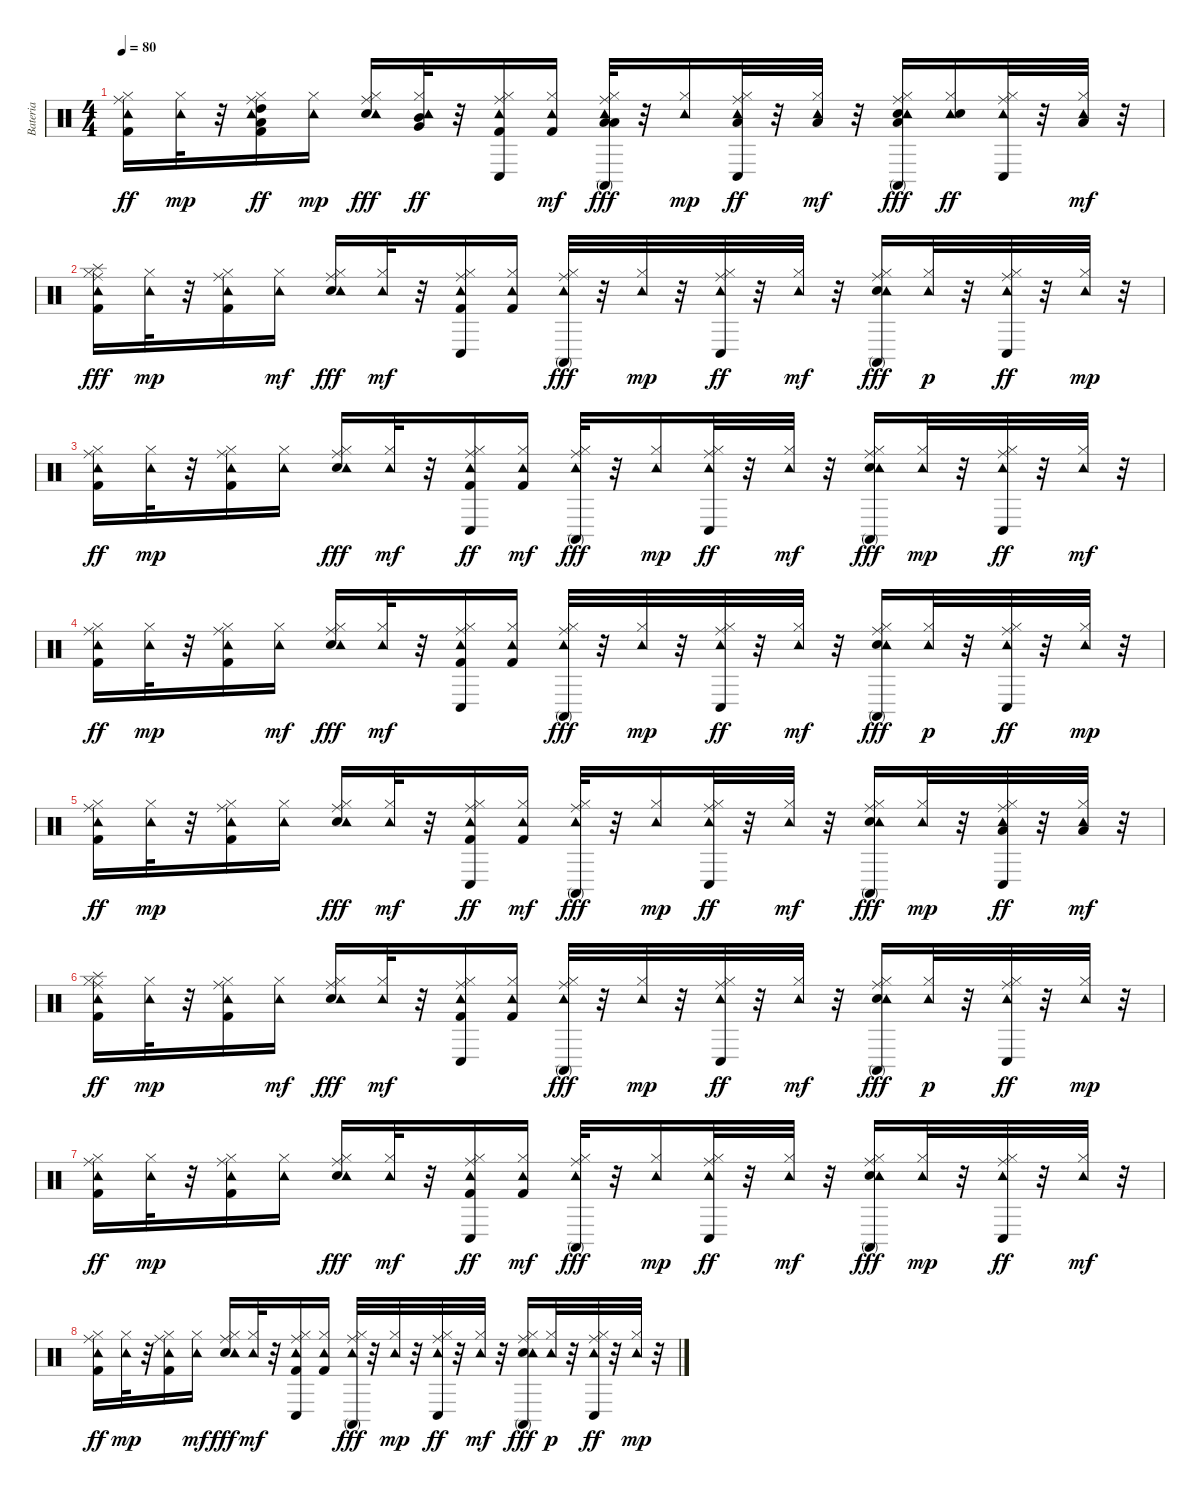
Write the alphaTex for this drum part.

\track ("Bateria" "Bateria") {instrument percussion}
\staff {score}
\articulation defaults
\ts (4 4)
\tempo 80
\clef neutral
\ks c
("Hi-Hat (closed)" "Ride (middle)" "Tambourine (hit)" "Kick (hit) 2").16{dy ff} ("Hi-Hat (closed)" "Tambourine (hit)").32{dy mp} r.32 ("Hi-Hat (closed)" "Ride (middle)" "Low Tom (hit)" "Tambourine (hit)" "Kick (hit) 2" "High Tom (hit)").16{dy ff} ("Hi-Hat (closed)" "Tambourine (hit)").16{dy mp} ("Electric Snare (hit)" "Hi-Hat (closed)" "Ride (middle)" "Tambourine (hit)").16{dy fff} ("Hi-Hat (closed)" "Very Low Tom (hit)" "Tambourine (hit)" "Mid Tom (hit)").32{dy ff} r.32 ("Hi-Hat (closed)" "Conga low (hit)" "Ride (middle)" "Tambourine (hit)" "Kick (hit) 2").16 ("Hi-Hat (closed)" "Tambourine (hit)" "Kick (hit) 2").16{dy mf} ("Low Tom (hit)" "Low Floor Tom (hit)" "Hi-Hat (closed)" "Conga high (mute)" "Ride (middle)" "Tambourine (hit)").32{dy fff} r.32 ("Hi-Hat (closed)" "Tambourine (hit)").16{dy mp} ("Low Floor Tom (hit)" "Hi-Hat (closed)" "Conga low (hit)" "Ride (middle)" "Tambourine (hit)").32{dy ff} r.32 ("Hi-Hat (closed)" "Low Floor Tom (hit)" "Tambourine (hit)").32{dy mf} r.32 ("Low Floor Tom (hit)" "Electric Snare (hit)" "Hi-Hat (closed)" "Conga high (mute)" "Ride (middle)" "Tambourine (hit)").16{dy fff} ("Hi-Hat (closed)" "Tambourine (hit)" "Electric Snare (hit)").16{dy ff} ("Hi-Hat (closed)" "Conga low (hit)" "Ride (middle)" "Tambourine (hit)").32 r.32 ("Hi-Hat (closed)" "Tambourine (hit)" "Low Floor Tom (hit)").32{dy mf} r.32 |
("Hi-Hat (closed)" "Ride (middle)" "Tambourine (hit)" "Kick (hit) 2" "Splash (hit)").16{dy fff} ("Hi-Hat (closed)" "Tambourine (hit)").32{dy mp} r.32 ("Hi-Hat (closed)" "Ride (middle)" "Tambourine (hit)" "Kick (hit) 2").16 ("Hi-Hat (closed)" "Tambourine (hit)").16{dy mf} ("Electric Snare (hit)" "Hi-Hat (closed)" "Ride (middle)" "Tambourine (hit)").16{dy fff} ("Hi-Hat (closed)" "Tambourine (hit)").32{dy mf} r.32 ("Hi-Hat (closed)" "Conga low (hit)" "Ride (middle)" "Tambourine (hit)" "Kick (hit) 2").16 ("Hi-Hat (closed)" "Tambourine (hit)" "Kick (hit) 2").16 ("Hi-Hat (closed)" "Conga high (mute)" "Ride (middle)" "Tambourine (hit)").32{dy fff} r.32 ("Hi-Hat (closed)" "Tambourine (hit)").32{dy mp} r.32 ("Hi-Hat (closed)" "Conga low (hit)" "Ride (middle)" "Tambourine (hit)").32{dy ff} r.32 ("Hi-Hat (closed)" "Tambourine (hit)").32{dy mf} r.32 ("Electric Snare (hit)" "Hi-Hat (closed)" "Conga high (mute)" "Ride (middle)" "Tambourine (hit)").16{dy fff} ("Hi-Hat (closed)" "Tambourine (hit)").32{dy p} r.32 ("Hi-Hat (closed)" "Conga low (hit)" "Ride (middle)" "Tambourine (hit)").32{dy ff} r.32 ("Hi-Hat (closed)" "Tambourine (hit)").32{dy mp} r.32 |
("Hi-Hat (closed)" "Ride (middle)" "Tambourine (hit)" "Kick (hit) 2").16{dy ff} ("Hi-Hat (closed)" "Tambourine (hit)").32{dy mp} r.32 ("Hi-Hat (closed)" "Ride (middle)" "Tambourine (hit)" "Kick (hit) 2").16 ("Hi-Hat (closed)" "Tambourine (hit)").16 ("Electric Snare (hit)" "Hi-Hat (closed)" "Ride (middle)" "Tambourine (hit)").16{dy fff} ("Hi-Hat (closed)" "Tambourine (hit)").32{dy mf} r.32 ("Hi-Hat (closed)" "Conga low (hit)" "Ride (middle)" "Tambourine (hit)" "Kick (hit) 2").16{dy ff} ("Hi-Hat (closed)" "Tambourine (hit)" "Kick (hit) 2").16{dy mf} ("Hi-Hat (closed)" "Conga high (mute)" "Ride (middle)" "Tambourine (hit)").32{dy fff} r.32 ("Hi-Hat (closed)" "Tambourine (hit)").16{dy mp} ("Hi-Hat (closed)" "Conga low (hit)" "Ride (middle)" "Tambourine (hit)").32{dy ff} r.32 ("Hi-Hat (closed)" "Tambourine (hit)").32{dy mf} r.32 ("Electric Snare (hit)" "Hi-Hat (closed)" "Conga high (mute)" "Ride (middle)" "Tambourine (hit)").16{dy fff} ("Hi-Hat (closed)" "Tambourine (hit)").32{dy mp} r.32 ("Hi-Hat (closed)" "Conga low (hit)" "Ride (middle)" "Tambourine (hit)").32{dy ff} r.32 ("Hi-Hat (closed)" "Tambourine (hit)").32{dy mf} r.32 |
("Hi-Hat (closed)" "Ride (middle)" "Tambourine (hit)" "Kick (hit) 2").16{dy ff} ("Hi-Hat (closed)" "Tambourine (hit)").32{dy mp} r.32 ("Hi-Hat (closed)" "Ride (middle)" "Tambourine (hit)" "Kick (hit) 2").16 ("Hi-Hat (closed)" "Tambourine (hit)").16{dy mf} ("Electric Snare (hit)" "Hi-Hat (closed)" "Ride (middle)" "Tambourine (hit)").16{dy fff} ("Hi-Hat (closed)" "Tambourine (hit)").32{dy mf} r.32 ("Hi-Hat (closed)" "Conga low (hit)" "Ride (middle)" "Tambourine (hit)" "Kick (hit) 2").16 ("Hi-Hat (closed)" "Tambourine (hit)" "Kick (hit) 2").16 ("Hi-Hat (closed)" "Conga high (mute)" "Ride (middle)" "Tambourine (hit)").32{dy fff} r.32 ("Hi-Hat (closed)" "Tambourine (hit)").32{dy mp} r.32 ("Hi-Hat (closed)" "Conga low (hit)" "Ride (middle)" "Tambourine (hit)").32{dy ff} r.32 ("Hi-Hat (closed)" "Tambourine (hit)").32{dy mf} r.32 ("Electric Snare (hit)" "Hi-Hat (closed)" "Conga high (mute)" "Ride (middle)" "Tambourine (hit)").16{dy fff} ("Hi-Hat (closed)" "Tambourine (hit)").32{dy p} r.32 ("Hi-Hat (closed)" "Conga low (hit)" "Ride (middle)" "Tambourine (hit)").32{dy ff} r.32 ("Hi-Hat (closed)" "Tambourine (hit)").32{dy mp} r.32 |
("Hi-Hat (closed)" "Ride (middle)" "Tambourine (hit)" "Kick (hit) 2").16{dy ff} ("Hi-Hat (closed)" "Tambourine (hit)").32{dy mp} r.32 ("Hi-Hat (closed)" "Ride (middle)" "Tambourine (hit)" "Kick (hit) 2").16 ("Hi-Hat (closed)" "Tambourine (hit)").16 ("Electric Snare (hit)" "Hi-Hat (closed)" "Ride (middle)" "Tambourine (hit)").16{dy fff} ("Hi-Hat (closed)" "Tambourine (hit)").32{dy mf} r.32 ("Hi-Hat (closed)" "Conga low (hit)" "Ride (middle)" "Tambourine (hit)" "Kick (hit) 2").16{dy ff} ("Hi-Hat (closed)" "Tambourine (hit)" "Kick (hit) 2").16{dy mf} ("Hi-Hat (closed)" "Conga high (mute)" "Ride (middle)" "Tambourine (hit)").32{dy fff} r.32 ("Hi-Hat (closed)" "Tambourine (hit)").16{dy mp} ("Hi-Hat (closed)" "Conga low (hit)" "Ride (middle)" "Tambourine (hit)").32{dy ff} r.32 ("Hi-Hat (closed)" "Tambourine (hit)").32{dy mf} r.32 ("Electric Snare (hit)" "Hi-Hat (closed)" "Conga high (mute)" "Ride (middle)" "Tambourine (hit)").16{dy fff} ("Hi-Hat (closed)" "Tambourine (hit)").32{dy mp} r.32 ("Hi-Hat (closed)" "Conga low (hit)" "Ride (middle)" "Low Floor Tom (hit)" "Tambourine (hit)").32{dy ff} r.32 ("Low Floor Tom (hit)" "Hi-Hat (closed)" "Tambourine (hit)").32{dy mf} r.32 |
("Hi-Hat (closed)" "Ride (middle)" "Splash (hit)" "Tambourine (hit)" "Kick (hit) 2").16{dy ff} ("Hi-Hat (closed)" "Tambourine (hit)").32{dy mp} r.32 ("Hi-Hat (closed)" "Ride (middle)" "Tambourine (hit)" "Kick (hit) 2").16 ("Hi-Hat (closed)" "Tambourine (hit)").16{dy mf} ("Electric Snare (hit)" "Hi-Hat (closed)" "Ride (middle)" "Tambourine (hit)").16{dy fff} ("Hi-Hat (closed)" "Tambourine (hit)").32{dy mf} r.32 ("Hi-Hat (closed)" "Conga low (hit)" "Ride (middle)" "Tambourine (hit)" "Kick (hit) 2").16 ("Hi-Hat (closed)" "Tambourine (hit)" "Kick (hit) 2").16 ("Hi-Hat (closed)" "Conga high (mute)" "Ride (middle)" "Tambourine (hit)").32{dy fff} r.32 ("Hi-Hat (closed)" "Tambourine (hit)").32{dy mp} r.32 ("Hi-Hat (closed)" "Conga low (hit)" "Ride (middle)" "Tambourine (hit)").32{dy ff} r.32 ("Hi-Hat (closed)" "Tambourine (hit)").32{dy mf} r.32 ("Electric Snare (hit)" "Hi-Hat (closed)" "Conga high (mute)" "Ride (middle)" "Tambourine (hit)").16{dy fff} ("Hi-Hat (closed)" "Tambourine (hit)").32{dy p} r.32 ("Hi-Hat (closed)" "Conga low (hit)" "Ride (middle)" "Tambourine (hit)").32{dy ff} r.32 ("Hi-Hat (closed)" "Tambourine (hit)").32{dy mp} r.32 |
("Hi-Hat (closed)" "Ride (middle)" "Tambourine (hit)" "Kick (hit) 2").16{dy ff} ("Hi-Hat (closed)" "Tambourine (hit)").32{dy mp} r.32 ("Hi-Hat (closed)" "Ride (middle)" "Tambourine (hit)" "Kick (hit) 2").16 ("Hi-Hat (closed)" "Tambourine (hit)").16 ("Electric Snare (hit)" "Hi-Hat (closed)" "Ride (middle)" "Tambourine (hit)").16{dy fff} ("Hi-Hat (closed)" "Tambourine (hit)").32{dy mf} r.32 ("Hi-Hat (closed)" "Conga low (hit)" "Ride (middle)" "Tambourine (hit)" "Kick (hit) 2").16{dy ff} ("Hi-Hat (closed)" "Tambourine (hit)" "Kick (hit) 2").16{dy mf} ("Hi-Hat (closed)" "Conga high (mute)" "Ride (middle)" "Tambourine (hit)").32{dy fff} r.32 ("Hi-Hat (closed)" "Tambourine (hit)").16{dy mp} ("Hi-Hat (closed)" "Conga low (hit)" "Ride (middle)" "Tambourine (hit)").32{dy ff} r.32 ("Hi-Hat (closed)" "Tambourine (hit)").32{dy mf} r.32 ("Electric Snare (hit)" "Hi-Hat (closed)" "Conga high (mute)" "Ride (middle)" "Tambourine (hit)").16{dy fff} ("Hi-Hat (closed)" "Tambourine (hit)").32{dy mp} r.32 ("Hi-Hat (closed)" "Conga low (hit)" "Ride (middle)" "Tambourine (hit)").32{dy ff} r.32 ("Hi-Hat (closed)" "Tambourine (hit)").32{dy mf} r.32 |
("Hi-Hat (closed)" "Ride (middle)" "Tambourine (hit)" "Kick (hit) 2").16{dy ff} ("Hi-Hat (closed)" "Tambourine (hit)").32{dy mp} r.32 ("Hi-Hat (closed)" "Ride (middle)" "Tambourine (hit)" "Kick (hit) 2").16 ("Hi-Hat (closed)" "Tambourine (hit)").16{dy mf} ("Electric Snare (hit)" "Hi-Hat (closed)" "Ride (middle)" "Tambourine (hit)").16{dy fff} ("Hi-Hat (closed)" "Tambourine (hit)").32{dy mf} r.32 ("Hi-Hat (closed)" "Conga low (hit)" "Ride (middle)" "Tambourine (hit)" "Kick (hit) 2").16 ("Hi-Hat (closed)" "Tambourine (hit)" "Kick (hit) 2").16 ("Hi-Hat (closed)" "Conga high (mute)" "Ride (middle)" "Tambourine (hit)").32{dy fff} r.32 ("Hi-Hat (closed)" "Tambourine (hit)").32{dy mp} r.32 ("Hi-Hat (closed)" "Conga low (hit)" "Ride (middle)" "Tambourine (hit)").32{dy ff} r.32 ("Hi-Hat (closed)" "Tambourine (hit)").32{dy mf} r.32 ("Electric Snare (hit)" "Hi-Hat (closed)" "Conga high (mute)" "Ride (middle)" "Tambourine (hit)").16{dy fff} ("Hi-Hat (closed)" "Tambourine (hit)").32{dy p} r.32 ("Hi-Hat (closed)" "Conga low (hit)" "Ride (middle)" "Tambourine (hit)").32{dy ff} r.32 ("Hi-Hat (closed)" "Tambourine (hit)").32{dy mp} r.32
